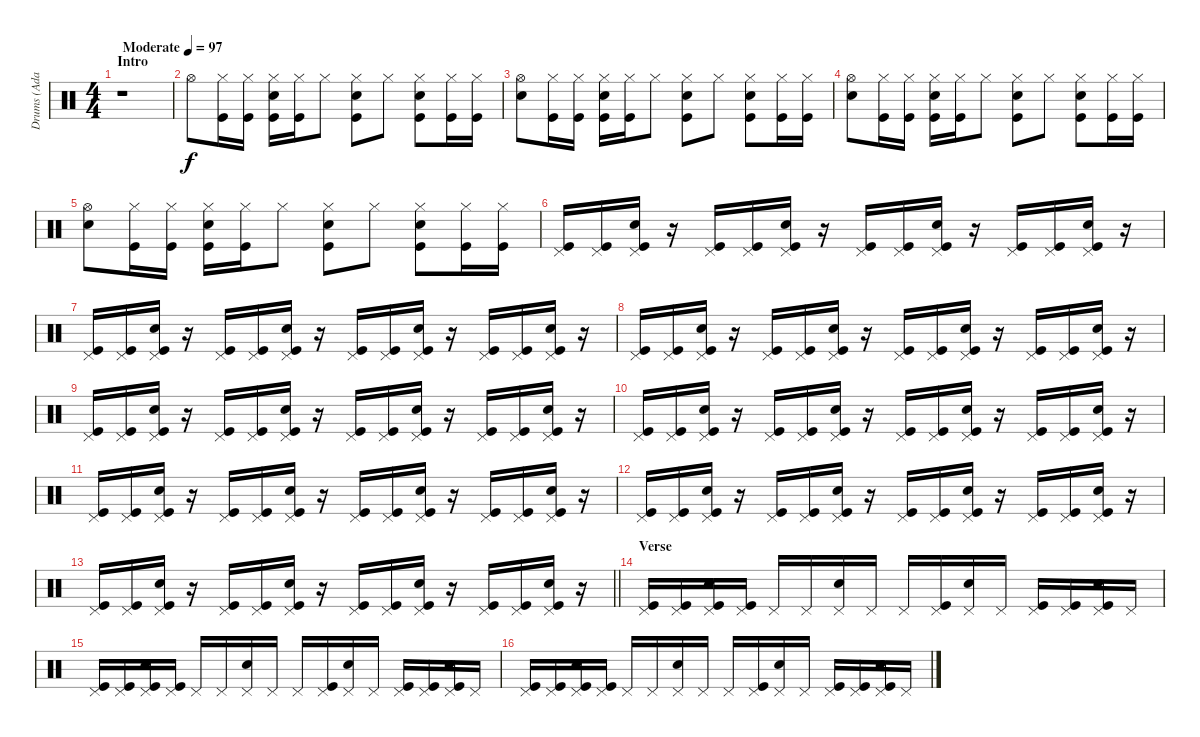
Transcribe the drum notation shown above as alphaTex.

\track ("Drums (Adam)" "Drums (Ada") {instrument percussion}
\staff {score}
\articulation defaults
\ts (4 4)
\section ("" "Intro")
\tempo (97 "Moderate")
\clef neutral
\ks c
r.1{dy f} |
"Hi-Hat (open)".8 ("Kick (hit)" "Hi-Hat (closed)").16 ("Kick (hit)" "Hi-Hat (closed)").16 ("Kick (hit)" "Snare (hit) 2" "Hi-Hat (closed)").16 ("Kick (hit)" "Hi-Hat (closed)").16 "Hi-Hat (closed)".8 ("Snare (hit) 2" "Hi-Hat (closed)" "Kick (hit)").8 "Hi-Hat (closed)".8 ("Kick (hit)" "Snare (hit) 2" "Hi-Hat (closed)").8 ("Kick (hit)" "Hi-Hat (closed)").16 ("Kick (hit)" "Hi-Hat (closed)").16 |
("Hi-Hat (open)" "Snare (hit) 2").8 ("Kick (hit)" "Hi-Hat (closed)").16 ("Kick (hit)" "Hi-Hat (closed)").16 ("Kick (hit)" "Snare (hit) 2" "Hi-Hat (closed)").16 ("Kick (hit)" "Hi-Hat (closed)").16 "Hi-Hat (closed)".8 ("Snare (hit) 2" "Hi-Hat (closed)" "Kick (hit)").8 "Hi-Hat (closed)".8 ("Kick (hit)" "Snare (hit) 2" "Hi-Hat (closed)").8 ("Kick (hit)" "Hi-Hat (closed)").16 ("Kick (hit)" "Hi-Hat (closed)").16 |
("Hi-Hat (open)" "Snare (hit) 2").8 ("Kick (hit)" "Hi-Hat (closed)").16 ("Kick (hit)" "Hi-Hat (closed)").16 ("Kick (hit)" "Snare (hit) 2" "Hi-Hat (closed)").16 ("Kick (hit)" "Hi-Hat (closed)").16 "Hi-Hat (closed)".8 ("Snare (hit) 2" "Hi-Hat (closed)" "Kick (hit)").8 "Hi-Hat (closed)".8 ("Kick (hit)" "Snare (hit) 2" "Hi-Hat (closed)").8 ("Kick (hit)" "Hi-Hat (closed)").16 ("Kick (hit)" "Hi-Hat (closed)").16 |
("Hi-Hat (open)" "Snare (hit) 2").8 ("Kick (hit)" "Hi-Hat (closed)").16 ("Kick (hit)" "Hi-Hat (closed)").16 ("Kick (hit)" "Snare (hit) 2" "Hi-Hat (closed)").16 ("Kick (hit)" "Hi-Hat (closed)").16 "Hi-Hat (closed)".8 ("Snare (hit) 2" "Hi-Hat (closed)" "Kick (hit)").8{volume 12} "Hi-Hat (closed)".8 ("Kick (hit)" "Snare (hit) 2" "Hi-Hat (closed)").8 ("Kick (hit)" "Hi-Hat (closed)").16 ("Kick (hit)" "Hi-Hat (closed)").16 |
("Kick (hit)" "Pedal Hi-Hat (hit)").16 ("Kick (hit)" "Pedal Hi-Hat (hit)").16 ("Kick (hit)" "Pedal Hi-Hat (hit)" "Snare (hit) 2").16 r.16 ("Kick (hit)" "Pedal Hi-Hat (hit)").16 ("Kick (hit)" "Pedal Hi-Hat (hit)").16 ("Kick (hit)" "Pedal Hi-Hat (hit)" "Snare (hit) 2").16 r.16 ("Kick (hit)" "Pedal Hi-Hat (hit)").16 ("Kick (hit)" "Pedal Hi-Hat (hit)").16 ("Kick (hit)" "Pedal Hi-Hat (hit)" "Snare (hit) 2").16 r.16 ("Kick (hit)" "Pedal Hi-Hat (hit)").16 ("Kick (hit)" "Pedal Hi-Hat (hit)").16 ("Kick (hit)" "Pedal Hi-Hat (hit)" "Snare (hit) 2").16 r.16 |
("Kick (hit)" "Pedal Hi-Hat (hit)").16 ("Kick (hit)" "Pedal Hi-Hat (hit)").16 ("Kick (hit)" "Pedal Hi-Hat (hit)" "Snare (hit) 2").16 r.16 ("Kick (hit)" "Pedal Hi-Hat (hit)").16 ("Kick (hit)" "Pedal Hi-Hat (hit)").16 ("Kick (hit)" "Pedal Hi-Hat (hit)" "Snare (hit) 2").16 r.16 ("Kick (hit)" "Pedal Hi-Hat (hit)").16 ("Kick (hit)" "Pedal Hi-Hat (hit)").16 ("Kick (hit)" "Pedal Hi-Hat (hit)" "Snare (hit) 2").16 r.16 ("Kick (hit)" "Pedal Hi-Hat (hit)").16 ("Kick (hit)" "Pedal Hi-Hat (hit)").16 ("Kick (hit)" "Pedal Hi-Hat (hit)" "Snare (hit) 2").16 r.16 |
("Kick (hit)" "Pedal Hi-Hat (hit)").16 ("Kick (hit)" "Pedal Hi-Hat (hit)").16 ("Kick (hit)" "Pedal Hi-Hat (hit)" "Snare (hit) 2").16 r.16 ("Kick (hit)" "Pedal Hi-Hat (hit)").16 ("Kick (hit)" "Pedal Hi-Hat (hit)").16 ("Kick (hit)" "Pedal Hi-Hat (hit)" "Snare (hit) 2").16 r.16 ("Kick (hit)" "Pedal Hi-Hat (hit)").16 ("Kick (hit)" "Pedal Hi-Hat (hit)").16 ("Kick (hit)" "Pedal Hi-Hat (hit)" "Snare (hit) 2").16 r.16 ("Kick (hit)" "Pedal Hi-Hat (hit)").16 ("Kick (hit)" "Pedal Hi-Hat (hit)").16 ("Kick (hit)" "Pedal Hi-Hat (hit)" "Snare (hit) 2").16 r.16 |
("Kick (hit)" "Pedal Hi-Hat (hit)").16 ("Kick (hit)" "Pedal Hi-Hat (hit)").16 ("Kick (hit)" "Pedal Hi-Hat (hit)" "Snare (hit) 2").16 r.16 ("Kick (hit)" "Pedal Hi-Hat (hit)").16 ("Kick (hit)" "Pedal Hi-Hat (hit)").16 ("Kick (hit)" "Pedal Hi-Hat (hit)" "Snare (hit) 2").16 r.16 ("Kick (hit)" "Pedal Hi-Hat (hit)").16 ("Kick (hit)" "Pedal Hi-Hat (hit)").16 ("Kick (hit)" "Pedal Hi-Hat (hit)" "Snare (hit) 2").16 r.16 ("Kick (hit)" "Pedal Hi-Hat (hit)").16 ("Kick (hit)" "Pedal Hi-Hat (hit)").16 ("Kick (hit)" "Pedal Hi-Hat (hit)" "Snare (hit) 2").16 r.16 |
("Kick (hit)" "Pedal Hi-Hat (hit)").16 ("Kick (hit)" "Pedal Hi-Hat (hit)").16 ("Kick (hit)" "Pedal Hi-Hat (hit)" "Snare (hit) 2").16 r.16 ("Kick (hit)" "Pedal Hi-Hat (hit)").16 ("Kick (hit)" "Pedal Hi-Hat (hit)").16 ("Kick (hit)" "Pedal Hi-Hat (hit)" "Snare (hit) 2").16 r.16 ("Kick (hit)" "Pedal Hi-Hat (hit)").16 ("Kick (hit)" "Pedal Hi-Hat (hit)").16 ("Kick (hit)" "Pedal Hi-Hat (hit)" "Snare (hit) 2").16 r.16 ("Kick (hit)" "Pedal Hi-Hat (hit)").16 ("Kick (hit)" "Pedal Hi-Hat (hit)").16 ("Kick (hit)" "Pedal Hi-Hat (hit)" "Snare (hit) 2").16 r.16 |
("Kick (hit)" "Pedal Hi-Hat (hit)").16 ("Kick (hit)" "Pedal Hi-Hat (hit)").16 ("Kick (hit)" "Pedal Hi-Hat (hit)" "Snare (hit) 2").16 r.16 ("Kick (hit)" "Pedal Hi-Hat (hit)").16 ("Kick (hit)" "Pedal Hi-Hat (hit)").16 ("Kick (hit)" "Pedal Hi-Hat (hit)" "Snare (hit) 2").16 r.16 ("Kick (hit)" "Pedal Hi-Hat (hit)").16 ("Kick (hit)" "Pedal Hi-Hat (hit)").16 ("Kick (hit)" "Pedal Hi-Hat (hit)" "Snare (hit) 2").16 r.16 ("Kick (hit)" "Pedal Hi-Hat (hit)").16 ("Kick (hit)" "Pedal Hi-Hat (hit)").16 ("Kick (hit)" "Pedal Hi-Hat (hit)" "Snare (hit) 2").16 r.16 |
("Kick (hit)" "Pedal Hi-Hat (hit)").16 ("Kick (hit)" "Pedal Hi-Hat (hit)").16 ("Kick (hit)" "Pedal Hi-Hat (hit)" "Snare (hit) 2").16 r.16 ("Kick (hit)" "Pedal Hi-Hat (hit)").16 ("Kick (hit)" "Pedal Hi-Hat (hit)").16 ("Kick (hit)" "Pedal Hi-Hat (hit)" "Snare (hit) 2").16 r.16 ("Kick (hit)" "Pedal Hi-Hat (hit)").16 ("Kick (hit)" "Pedal Hi-Hat (hit)").16 ("Kick (hit)" "Pedal Hi-Hat (hit)" "Snare (hit) 2").16 r.16 ("Kick (hit)" "Pedal Hi-Hat (hit)").16 ("Kick (hit)" "Pedal Hi-Hat (hit)").16 ("Kick (hit)" "Pedal Hi-Hat (hit)" "Snare (hit) 2").16 r.16 |
\barLineRight lightlight
("Kick (hit)" "Pedal Hi-Hat (hit)").16 ("Kick (hit)" "Pedal Hi-Hat (hit)").16 ("Kick (hit)" "Pedal Hi-Hat (hit)" "Snare (hit) 2").16 r.16 ("Kick (hit)" "Pedal Hi-Hat (hit)").16 ("Kick (hit)" "Pedal Hi-Hat (hit)").16 ("Kick (hit)" "Pedal Hi-Hat (hit)" "Snare (hit) 2").16 r.16 ("Kick (hit)" "Pedal Hi-Hat (hit)").16{volume 12} ("Kick (hit)" "Pedal Hi-Hat (hit)").16 ("Kick (hit)" "Pedal Hi-Hat (hit)" "Snare (hit) 2").16 r.16 ("Kick (hit)" "Pedal Hi-Hat (hit)").16 ("Kick (hit)" "Pedal Hi-Hat (hit)").16 ("Kick (hit)" "Pedal Hi-Hat (hit)" "Snare (hit) 2").16 r.16 |
\section ("" "Verse")
("Kick (hit)" "Pedal Hi-Hat (hit)").16 ("Kick (hit)" "Pedal Hi-Hat (hit)").16 ("Kick (hit)" "Snare (hit) 2" "Pedal Hi-Hat (hit)").16 ("Kick (hit)" "Pedal Hi-Hat (hit)").16 "Pedal Hi-Hat (hit)".16 "Pedal Hi-Hat (hit)".16 ("Snare (hit) 2" "Pedal Hi-Hat (hit)").16 "Pedal Hi-Hat (hit)".16 "Pedal Hi-Hat (hit)".16 ("Kick (hit)" "Pedal Hi-Hat (hit)").16 ("Snare (hit) 2" "Pedal Hi-Hat (hit)").16 "Pedal Hi-Hat (hit)".16 ("Kick (hit)" "Pedal Hi-Hat (hit)").16 ("Kick (hit)" "Pedal Hi-Hat (hit)").16 ("Kick (hit)" "Pedal Hi-Hat (hit)" "Snare (hit) 2").16 "Pedal Hi-Hat (hit)".16 |
("Kick (hit)" "Pedal Hi-Hat (hit)").16 ("Kick (hit)" "Pedal Hi-Hat (hit)").16 ("Kick (hit)" "Snare (hit) 2" "Pedal Hi-Hat (hit)").16 ("Kick (hit)" "Pedal Hi-Hat (hit)").16 "Pedal Hi-Hat (hit)".16 "Pedal Hi-Hat (hit)".16 ("Snare (hit) 2" "Pedal Hi-Hat (hit)").16 "Pedal Hi-Hat (hit)".16 "Pedal Hi-Hat (hit)".16 ("Kick (hit)" "Pedal Hi-Hat (hit)").16 ("Snare (hit) 2" "Pedal Hi-Hat (hit)").16 "Pedal Hi-Hat (hit)".16 ("Kick (hit)" "Pedal Hi-Hat (hit)").16 ("Kick (hit)" "Pedal Hi-Hat (hit)").16 ("Kick (hit)" "Pedal Hi-Hat (hit)" "Snare (hit) 2").16 "Pedal Hi-Hat (hit)".16 |
("Kick (hit)" "Pedal Hi-Hat (hit)").16 ("Kick (hit)" "Pedal Hi-Hat (hit)").16 ("Kick (hit)" "Snare (hit) 2" "Pedal Hi-Hat (hit)").16 ("Kick (hit)" "Pedal Hi-Hat (hit)").16 "Pedal Hi-Hat (hit)".16 "Pedal Hi-Hat (hit)".16 ("Snare (hit) 2" "Pedal Hi-Hat (hit)").16 "Pedal Hi-Hat (hit)".16 "Pedal Hi-Hat (hit)".16 ("Kick (hit)" "Pedal Hi-Hat (hit)").16 ("Snare (hit) 2" "Pedal Hi-Hat (hit)").16 "Pedal Hi-Hat (hit)".16 ("Kick (hit)" "Pedal Hi-Hat (hit)").16 ("Kick (hit)" "Pedal Hi-Hat (hit)").16 ("Kick (hit)" "Pedal Hi-Hat (hit)" "Snare (hit) 2").16 "Pedal Hi-Hat (hit)".16
